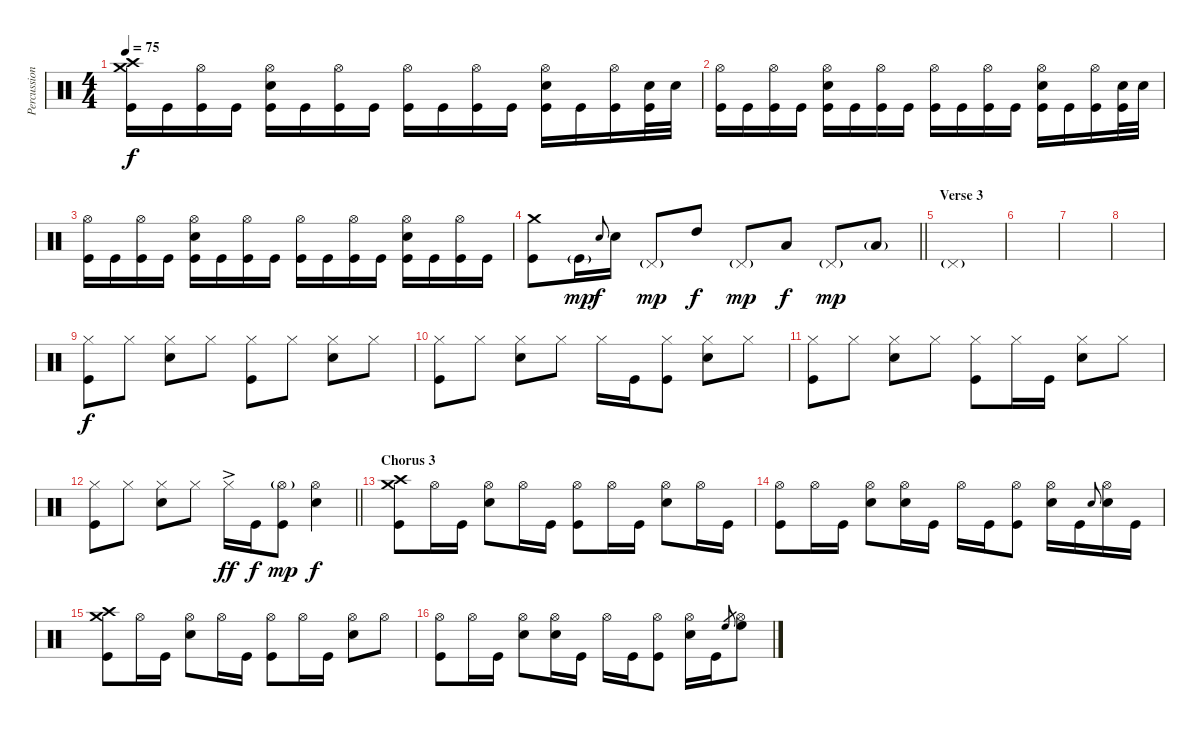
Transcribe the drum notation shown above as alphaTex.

\track ("Percussion" "Percussion") {instrument percussion}
\staff {score}
\articulation defaults
\ts (4 4)
\tempo 75
\clef neutral
\ks c
("Crash high (hit)" "Crash medium (hit)" "Kick (hit)").16{dy f} "Kick (hit)".16 ("Hi-Hat (open)" "Kick (hit)").16 "Kick (hit)".16 ("Hi-Hat (open)" "Snare (hit) 2" "Kick (hit)").16 "Kick (hit)".16 ("Hi-Hat (open)" "Kick (hit)").16 "Kick (hit)".16 ("Hi-Hat (open)" "Kick (hit)").16 "Kick (hit)".16 ("Hi-Hat (open)" "Kick (hit)").16 "Kick (hit)".16 ("Hi-Hat (open)" "Snare (hit) 2" "Kick (hit)").16 "Kick (hit)".16 ("Hi-Hat (open)" "Kick (hit)").16 ("Snare (hit) 2" "Kick (hit)").32 "Snare (hit) 2".32 |
("Hi-Hat (open)" "Kick (hit)").16 "Kick (hit)".16 ("Hi-Hat (open)" "Kick (hit)").16 "Kick (hit)".16 ("Hi-Hat (open)" "Snare (hit) 2" "Kick (hit)").16 "Kick (hit)".16 ("Hi-Hat (open)" "Kick (hit)").16 "Kick (hit)".16 ("Hi-Hat (open)" "Kick (hit)").16 "Kick (hit)".16 ("Hi-Hat (open)" "Kick (hit)").16 "Kick (hit)".16 ("Hi-Hat (open)" "Snare (hit) 2" "Kick (hit)").16 "Kick (hit)".16 ("Hi-Hat (open)" "Kick (hit)").16 ("Snare (hit) 2" "Kick (hit)").32 "Snare (hit) 2".32 |
("Hi-Hat (open)" "Kick (hit)").16 "Kick (hit)".16 ("Hi-Hat (open)" "Kick (hit)").16 "Kick (hit)".16 ("Hi-Hat (open)" "Snare (hit) 2" "Kick (hit)").16 "Kick (hit)".16 ("Hi-Hat (open)" "Kick (hit)").16 "Kick (hit)".16 ("Hi-Hat (open)" "Kick (hit)").16 "Kick (hit)".16 ("Hi-Hat (open)" "Kick (hit)").16 "Kick (hit)".16 ("Hi-Hat (open)" "Snare (hit) 2" "Kick (hit)").16 "Kick (hit)".16 ("Hi-Hat (open)" "Kick (hit)").16 "Kick (hit)".16 |
\barLineRight lightlight
("Crash medium (hit)" "Kick (hit)").8 "Kick (hit)"{g}.16{dy mp} "Snare (hit) 2".8{gr onbeat dy f} "Snare (hit) 2".16 "Pedal Hi-Hat (hit)"{g}.8{dy mp} "High Tom (hit)".8{dy f} "Pedal Hi-Hat (hit)"{g}.8{dy mp} "Low Tom (hit)".8{dy f} "Pedal Hi-Hat (hit)"{g}.8{dy mp} "Low Floor Tom (hit)"{g}.8 |
\section ("" "Verse 3")
"Pedal Hi-Hat (hit)"{g}.1 |
|
|
|
("Hi-Hat (closed)" "Kick (hit)").8{dy f} "Hi-Hat (closed)".8 ("Hi-Hat (closed)" "Snare (hit) 2").8 "Hi-Hat (closed)".8 ("Hi-Hat (closed)" "Kick (hit)").8 "Hi-Hat (closed)".8 ("Hi-Hat (closed)" "Snare (hit) 2").8 "Hi-Hat (closed)".8 |
("Hi-Hat (closed)" "Kick (hit)").8 "Hi-Hat (closed)".8 ("Hi-Hat (closed)" "Snare (hit) 2").8 "Hi-Hat (closed)".8 "Hi-Hat (closed)".16 "Kick (hit)".16 ("Hi-Hat (closed)" "Kick (hit)").8 ("Hi-Hat (closed)" "Snare (hit) 2").8 "Hi-Hat (closed)".8 |
("Hi-Hat (closed)" "Kick (hit)").8 "Hi-Hat (closed)".8 ("Hi-Hat (closed)" "Snare (hit) 2").8 "Hi-Hat (closed)".8 ("Hi-Hat (closed)" "Kick (hit)").8 "Hi-Hat (closed)".16 "Kick (hit)".16 ("Hi-Hat (closed)" "Snare (hit) 2").8 "Hi-Hat (closed)".8 |
\barLineRight lightlight
("Hi-Hat (closed)" "Kick (hit)").8 "Hi-Hat (closed)".8 ("Hi-Hat (closed)" "Snare (hit) 2").8 "Hi-Hat (closed)".8 "Hi-Hat (closed)"{ac}.16{dy ff} "Kick (hit)".16{dy f} ("Hi-Hat (open)"{g} "Kick (hit)").8{dy mp} ("Hi-Hat (open)" "Snare (hit) 2").4{dy f} |
\section ("" "Chorus 3")
("Crash high (hit)" "Crash medium (hit)" "Kick (hit)").8 "Hi-Hat (open)".16 "Kick (hit)".16 ("Hi-Hat (open)" "Snare (hit) 2").8 "Hi-Hat (open)".16 "Kick (hit)".16 ("Hi-Hat (open)" "Kick (hit)").8 "Hi-Hat (open)".16 "Kick (hit)".16 ("Hi-Hat (open)" "Snare (hit) 2").8 "Hi-Hat (open)".16 "Kick (hit)".16 |
("Hi-Hat (open)" "Kick (hit)").8 "Hi-Hat (open)".16 "Kick (hit)".16 ("Hi-Hat (open)" "Snare (hit) 2").8 ("Hi-Hat (open)" "Snare (hit) 2").16 "Kick (hit)".16 "Hi-Hat (open)".16 "Kick (hit)".16 ("Hi-Hat (open)" "Kick (hit)").8 ("Hi-Hat (open)" "Snare (hit) 2").16 "Kick (hit)".16 "Snare (hit) 2".8{gr onbeat} ("Hi-Hat (open)" "Snare (hit) 2").16 "Kick (hit)".16 |
("Crash high (hit)" "Crash medium (hit)" "Kick (hit)").8 "Hi-Hat (open)".16 "Kick (hit)".16 ("Hi-Hat (open)" "Snare (hit) 2").8 "Hi-Hat (open)".16 "Kick (hit)".16 ("Hi-Hat (open)" "Kick (hit)").8 "Hi-Hat (open)".16 "Kick (hit)".16 ("Hi-Hat (open)" "Snare (hit) 2").8 "Hi-Hat (open)".8 |
("Hi-Hat (open)" "Kick (hit)").8 "Hi-Hat (open)".16 "Kick (hit)".16 ("Hi-Hat (open)" "Snare (hit) 2").8 ("Hi-Hat (open)" "Snare (hit) 2").16 "Kick (hit)".16 "Hi-Hat (open)".16 "Kick (hit)".16 ("Hi-Hat (open)" "Kick (hit)").8 ("Hi-Hat (open)" "Snare (hit) 2").16 "Kick (hit)".16 "High Floor Tom (hit)".8{gr} ("Hi-Hat (open)" "High Floor Tom (hit)").8
